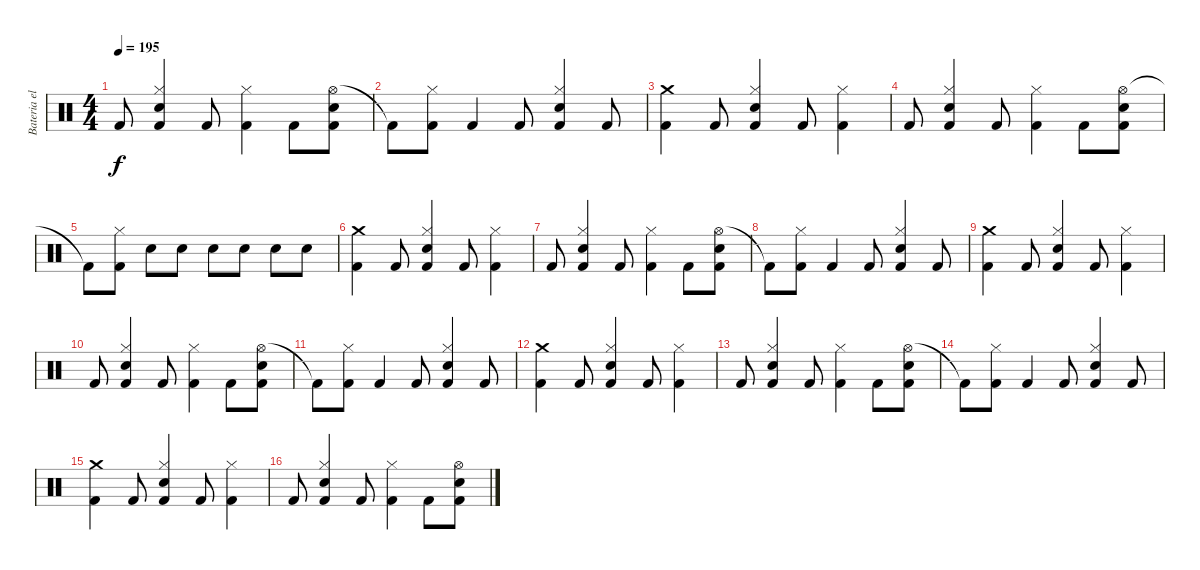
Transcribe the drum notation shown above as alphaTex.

\track ("Bateria electrica" "Bateria el") {instrument percussion}
\staff {score}
\articulation defaults
\ts (4 4)
\tempo 195
\clef neutral
\ks c "Kick (hit) 2".8{dy f}
("Hi-Hat (closed)" "Kick (hit) 2" "Snare (hit) 2").4 "Kick (hit) 2".8 ("Hi-Hat (closed)" "Kick (hit) 2").4 "Kick (hit) 2".8 ("Hi-Hat (open)" "Kick (hit) 2" "Snare (hit) 2").8 |
"Kick (hit) 2"{t}.8 ("Hi-Hat (closed)" "Kick (hit) 2").8 "Kick (hit) 2".4 "Kick (hit) 2".8 ("Hi-Hat (closed)" "Kick (hit) 2" "Snare (hit) 2").4 "Kick (hit) 2".8 |
("Crash medium (hit)" "Kick (hit) 2").4 "Kick (hit) 2".8 ("Hi-Hat (closed)" "Kick (hit) 2" "Snare (hit) 2").4 "Kick (hit) 2".8 ("Hi-Hat (closed)" "Kick (hit) 2").4 |
"Kick (hit) 2".8 ("Hi-Hat (closed)" "Kick (hit) 2" "Snare (hit) 2").4 "Kick (hit) 2".8 ("Hi-Hat (closed)" "Kick (hit) 2").4 "Kick (hit) 2".8 ("Hi-Hat (open)" "Kick (hit) 2" "Snare (hit) 2").8 |
"Kick (hit) 2"{t}.8 ("Hi-Hat (closed)" "Kick (hit) 2").8 "Snare (hit) 2".8 "Snare (hit) 2".8 "Snare (hit) 2".8 "Snare (hit) 2".8 "Snare (hit) 2".8 "Snare (hit) 2".8 |
("Crash medium (hit)" "Kick (hit) 2").4 "Kick (hit) 2".8 ("Hi-Hat (closed)" "Kick (hit) 2" "Snare (hit) 2").4 "Kick (hit) 2".8 ("Hi-Hat (closed)" "Kick (hit) 2").4 |
"Kick (hit) 2".8 ("Hi-Hat (closed)" "Kick (hit) 2" "Snare (hit) 2").4 "Kick (hit) 2".8 ("Hi-Hat (closed)" "Kick (hit) 2").4 "Kick (hit) 2".8 ("Hi-Hat (open)" "Kick (hit) 2" "Snare (hit) 2").8 |
"Kick (hit) 2"{t}.8 ("Hi-Hat (closed)" "Kick (hit) 2").8 "Kick (hit) 2".4 "Kick (hit) 2".8 ("Hi-Hat (closed)" "Kick (hit) 2" "Snare (hit) 2").4 "Kick (hit) 2".8 |
("Crash medium (hit)" "Kick (hit) 2").4 "Kick (hit) 2".8 ("Hi-Hat (closed)" "Kick (hit) 2" "Snare (hit) 2").4 "Kick (hit) 2".8 ("Hi-Hat (closed)" "Kick (hit) 2").4 |
"Kick (hit) 2".8 ("Hi-Hat (closed)" "Kick (hit) 2" "Snare (hit) 2").4 "Kick (hit) 2".8 ("Hi-Hat (closed)" "Kick (hit) 2").4 "Kick (hit) 2".8 ("Hi-Hat (open)" "Kick (hit) 2" "Snare (hit) 2").8 |
"Kick (hit) 2"{t}.8 ("Hi-Hat (closed)" "Kick (hit) 2").8 "Kick (hit) 2".4 "Kick (hit) 2".8 ("Hi-Hat (closed)" "Kick (hit) 2" "Snare (hit) 2").4 "Kick (hit) 2".8 |
("Crash medium (hit)" "Kick (hit) 2").4 "Kick (hit) 2".8 ("Hi-Hat (closed)" "Kick (hit) 2" "Snare (hit) 2").4 "Kick (hit) 2".8 ("Hi-Hat (closed)" "Kick (hit) 2").4 |
"Kick (hit) 2".8 ("Hi-Hat (closed)" "Kick (hit) 2" "Snare (hit) 2").4 "Kick (hit) 2".8 ("Hi-Hat (closed)" "Kick (hit) 2").4 "Kick (hit) 2".8 ("Hi-Hat (open)" "Kick (hit) 2" "Snare (hit) 2").8 |
"Kick (hit) 2"{t}.8 ("Hi-Hat (closed)" "Kick (hit) 2").8 "Kick (hit) 2".4 "Kick (hit) 2".8 ("Hi-Hat (closed)" "Kick (hit) 2" "Snare (hit) 2").4 "Kick (hit) 2".8 |
("Crash medium (hit)" "Kick (hit) 2").4 "Kick (hit) 2".8 ("Hi-Hat (closed)" "Kick (hit) 2" "Snare (hit) 2").4 "Kick (hit) 2".8 ("Hi-Hat (closed)" "Kick (hit) 2").4 |
"Kick (hit) 2".8 ("Hi-Hat (closed)" "Kick (hit) 2" "Snare (hit) 2").4 "Kick (hit) 2".8 ("Hi-Hat (closed)" "Kick (hit) 2").4 "Kick (hit) 2".8 ("Hi-Hat (open)" "Kick (hit) 2" "Snare (hit) 2").8
